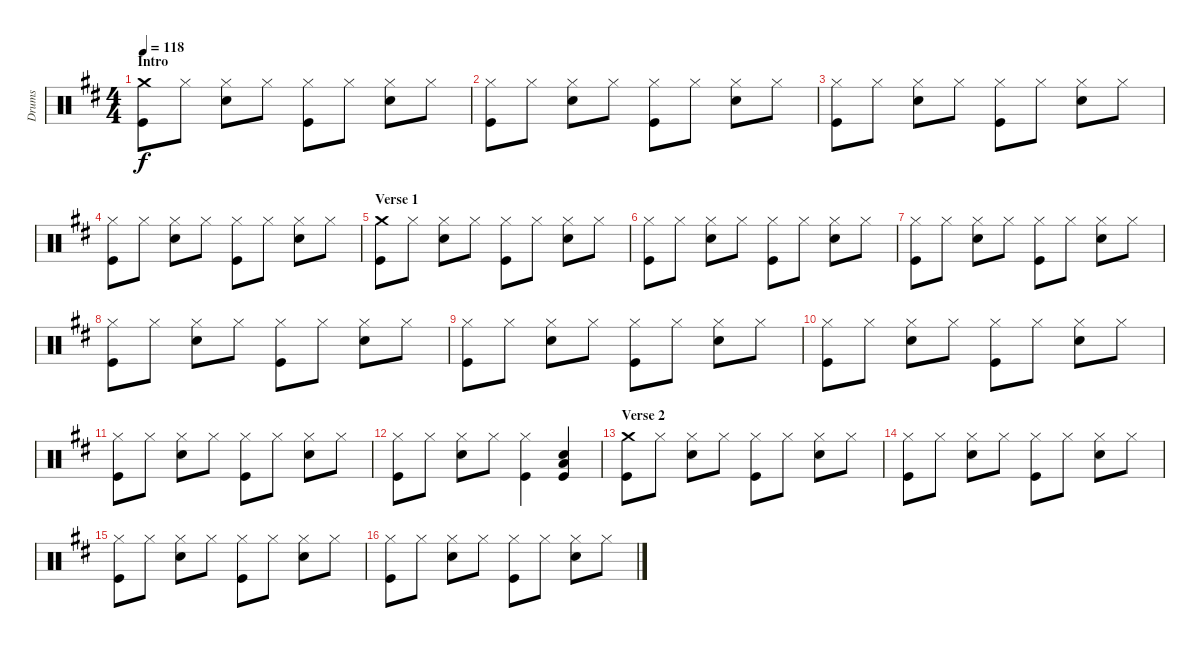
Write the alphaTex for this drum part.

\track ("Drums" "Drums") {instrument percussion}
\staff {score}
\articulation defaults
\ts (4 4)
\section ("" "Intro")
\tempo 118
\clef neutral
\ks d
("Crash medium (hit)" "Kick (hit)").8{dy f} "Hi-Hat (closed)".8 ("Hi-Hat (closed)" "Electric Snare (hit)").8 "Hi-Hat (closed)".8 ("Hi-Hat (closed)" "Kick (hit)").8 "Hi-Hat (closed)".8 ("Hi-Hat (closed)" "Electric Snare (hit)").8 "Hi-Hat (closed)".8 |
("Hi-Hat (closed)" "Kick (hit)").8 "Hi-Hat (closed)".8 ("Hi-Hat (closed)" "Electric Snare (hit)").8 "Hi-Hat (closed)".8 ("Hi-Hat (closed)" "Kick (hit)").8 "Hi-Hat (closed)".8 ("Hi-Hat (closed)" "Electric Snare (hit)").8 "Hi-Hat (closed)".8 |
("Hi-Hat (closed)" "Kick (hit)").8 "Hi-Hat (closed)".8 ("Hi-Hat (closed)" "Electric Snare (hit)").8 "Hi-Hat (closed)".8 ("Hi-Hat (closed)" "Kick (hit)").8 "Hi-Hat (closed)".8 ("Hi-Hat (closed)" "Electric Snare (hit)").8 "Hi-Hat (closed)".8 |
("Hi-Hat (closed)" "Kick (hit)").8 "Hi-Hat (closed)".8 ("Hi-Hat (closed)" "Electric Snare (hit)").8 "Hi-Hat (closed)".8 ("Hi-Hat (closed)" "Kick (hit)").8 "Hi-Hat (closed)".8 ("Hi-Hat (closed)" "Electric Snare (hit)").8 "Hi-Hat (closed)".8 |
\section ("" "Verse 1")
("Crash medium (hit)" "Kick (hit)").8 "Hi-Hat (closed)".8 ("Hi-Hat (closed)" "Electric Snare (hit)").8 "Hi-Hat (closed)".8 ("Hi-Hat (closed)" "Kick (hit)").8 "Hi-Hat (closed)".8 ("Hi-Hat (closed)" "Electric Snare (hit)").8 "Hi-Hat (closed)".8 |
("Hi-Hat (closed)" "Kick (hit)").8 "Hi-Hat (closed)".8 ("Hi-Hat (closed)" "Electric Snare (hit)").8 "Hi-Hat (closed)".8 ("Hi-Hat (closed)" "Kick (hit)").8 "Hi-Hat (closed)".8 ("Hi-Hat (closed)" "Electric Snare (hit)").8 "Hi-Hat (closed)".8 |
("Hi-Hat (closed)" "Kick (hit)").8 "Hi-Hat (closed)".8 ("Hi-Hat (closed)" "Electric Snare (hit)").8 "Hi-Hat (closed)".8 ("Hi-Hat (closed)" "Kick (hit)").8 "Hi-Hat (closed)".8 ("Hi-Hat (closed)" "Electric Snare (hit)").8 "Hi-Hat (closed)".8 |
("Hi-Hat (closed)" "Kick (hit)").8 "Hi-Hat (closed)".8 ("Hi-Hat (closed)" "Electric Snare (hit)").8 "Hi-Hat (closed)".8 ("Hi-Hat (closed)" "Kick (hit)").8 "Hi-Hat (closed)".8 ("Hi-Hat (closed)" "Electric Snare (hit)").8 "Hi-Hat (closed)".8 |
("Hi-Hat (closed)" "Kick (hit)").8 "Hi-Hat (closed)".8 ("Hi-Hat (closed)" "Electric Snare (hit)").8 "Hi-Hat (closed)".8 ("Hi-Hat (closed)" "Kick (hit)").8 "Hi-Hat (closed)".8 ("Hi-Hat (closed)" "Electric Snare (hit)").8 "Hi-Hat (closed)".8 |
("Hi-Hat (closed)" "Kick (hit)").8 "Hi-Hat (closed)".8 ("Hi-Hat (closed)" "Electric Snare (hit)").8 "Hi-Hat (closed)".8 ("Hi-Hat (closed)" "Kick (hit)").8 "Hi-Hat (closed)".8 ("Hi-Hat (closed)" "Electric Snare (hit)").8 "Hi-Hat (closed)".8 |
("Hi-Hat (closed)" "Kick (hit)").8 "Hi-Hat (closed)".8 ("Hi-Hat (closed)" "Electric Snare (hit)").8 "Hi-Hat (closed)".8 ("Hi-Hat (closed)" "Kick (hit)").8 "Hi-Hat (closed)".8 ("Hi-Hat (closed)" "Electric Snare (hit)").8 "Hi-Hat (closed)".8 |
("Hi-Hat (closed)" "Kick (hit)").8 "Hi-Hat (closed)".8 ("Hi-Hat (closed)" "Electric Snare (hit)").8 "Hi-Hat (closed)".8 ("Hi-Hat (closed)" "Kick (hit)").4 ("Electric Snare (hit)" "Low Tom (hit)" "Kick (hit)").4 |
\section ("" "Verse 2")
("Crash medium (hit)" "Kick (hit)").8 "Hi-Hat (closed)".8 ("Hi-Hat (closed)" "Electric Snare (hit)").8 "Hi-Hat (closed)".8 ("Hi-Hat (closed)" "Kick (hit)").8 "Hi-Hat (closed)".8 ("Hi-Hat (closed)" "Electric Snare (hit)").8 "Hi-Hat (closed)".8 |
("Hi-Hat (closed)" "Kick (hit)").8 "Hi-Hat (closed)".8 ("Hi-Hat (closed)" "Electric Snare (hit)").8 "Hi-Hat (closed)".8 ("Hi-Hat (closed)" "Kick (hit)").8 "Hi-Hat (closed)".8 ("Hi-Hat (closed)" "Electric Snare (hit)").8 "Hi-Hat (closed)".8 |
("Hi-Hat (closed)" "Kick (hit)").8 "Hi-Hat (closed)".8 ("Hi-Hat (closed)" "Electric Snare (hit)").8 "Hi-Hat (closed)".8 ("Hi-Hat (closed)" "Kick (hit)").8 "Hi-Hat (closed)".8 ("Hi-Hat (closed)" "Electric Snare (hit)").8 "Hi-Hat (closed)".8 |
("Hi-Hat (closed)" "Kick (hit)").8 "Hi-Hat (closed)".8 ("Hi-Hat (closed)" "Electric Snare (hit)").8 "Hi-Hat (closed)".8 ("Hi-Hat (closed)" "Kick (hit)").8 "Hi-Hat (closed)".8 ("Hi-Hat (closed)" "Electric Snare (hit)").8 "Hi-Hat (closed)".8
